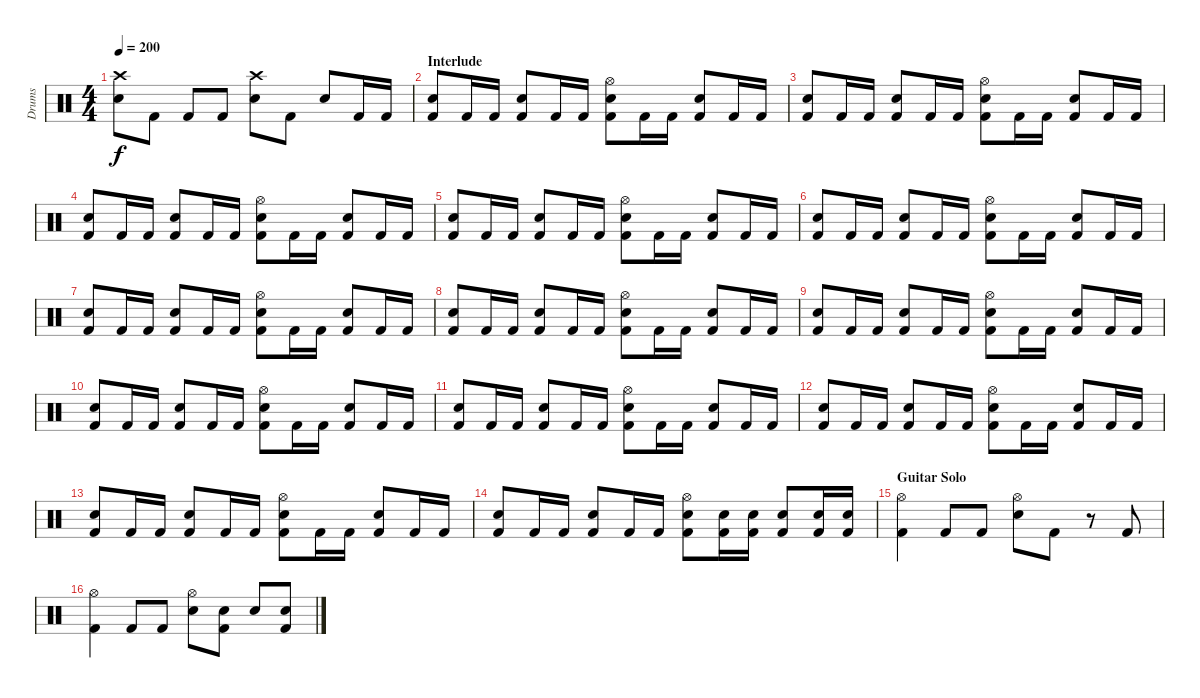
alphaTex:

\track ("Drums" "Drums") {instrument percussion}
\staff {score}
\articulation defaults
\ts (4 4)
\tempo 200
\clef neutral
\ks c
("Crash high (hit)" "Electric Snare (hit)").8{dy f} "Kick (hit) 2".8 "Kick (hit) 2".8 "Kick (hit) 2".8 ("Crash high (hit)" "Electric Snare (hit)").8 "Kick (hit) 2".8 "Electric Snare (hit)".8 "Kick (hit) 2".16 "Kick (hit) 2".16 |
\section ("" "Interlude")
("Electric Snare (hit)" "Kick (hit) 2").8 "Kick (hit) 2".16 "Kick (hit) 2".16 ("Electric Snare (hit)" "Kick (hit) 2").8 "Kick (hit) 2".16 "Kick (hit) 2".16 ("Hi-Hat (open)" "Electric Snare (hit)" "Kick (hit) 2").8 "Kick (hit) 2".16 "Kick (hit) 2".16 ("Electric Snare (hit)" "Kick (hit) 2").8 "Kick (hit) 2".16 "Kick (hit) 2".16 |
("Electric Snare (hit)" "Kick (hit) 2").8 "Kick (hit) 2".16 "Kick (hit) 2".16 ("Electric Snare (hit)" "Kick (hit) 2").8 "Kick (hit) 2".16 "Kick (hit) 2".16 ("Hi-Hat (open)" "Electric Snare (hit)" "Kick (hit) 2").8 "Kick (hit) 2".16 "Kick (hit) 2".16 ("Electric Snare (hit)" "Kick (hit) 2").8 "Kick (hit) 2".16 "Kick (hit) 2".16 |
("Electric Snare (hit)" "Kick (hit) 2").8 "Kick (hit) 2".16 "Kick (hit) 2".16 ("Electric Snare (hit)" "Kick (hit) 2").8 "Kick (hit) 2".16 "Kick (hit) 2".16 ("Hi-Hat (open)" "Electric Snare (hit)" "Kick (hit) 2").8 "Kick (hit) 2".16 "Kick (hit) 2".16 ("Electric Snare (hit)" "Kick (hit) 2").8 "Kick (hit) 2".16 "Kick (hit) 2".16 |
("Electric Snare (hit)" "Kick (hit) 2").8 "Kick (hit) 2".16 "Kick (hit) 2".16 ("Electric Snare (hit)" "Kick (hit) 2").8 "Kick (hit) 2".16 "Kick (hit) 2".16 ("Hi-Hat (open)" "Electric Snare (hit)" "Kick (hit) 2").8 "Kick (hit) 2".16 "Kick (hit) 2".16 ("Electric Snare (hit)" "Kick (hit) 2").8 "Kick (hit) 2".16 "Kick (hit) 2".16 |
("Electric Snare (hit)" "Kick (hit) 2").8 "Kick (hit) 2".16 "Kick (hit) 2".16 ("Electric Snare (hit)" "Kick (hit) 2").8 "Kick (hit) 2".16 "Kick (hit) 2".16 ("Hi-Hat (open)" "Electric Snare (hit)" "Kick (hit) 2").8 "Kick (hit) 2".16 "Kick (hit) 2".16 ("Electric Snare (hit)" "Kick (hit) 2").8 "Kick (hit) 2".16 "Kick (hit) 2".16 |
("Electric Snare (hit)" "Kick (hit) 2").8 "Kick (hit) 2".16 "Kick (hit) 2".16 ("Electric Snare (hit)" "Kick (hit) 2").8 "Kick (hit) 2".16 "Kick (hit) 2".16 ("Hi-Hat (open)" "Electric Snare (hit)" "Kick (hit) 2").8 "Kick (hit) 2".16 "Kick (hit) 2".16 ("Electric Snare (hit)" "Kick (hit) 2").8 "Kick (hit) 2".16 "Kick (hit) 2".16 |
("Electric Snare (hit)" "Kick (hit) 2").8 "Kick (hit) 2".16 "Kick (hit) 2".16 ("Electric Snare (hit)" "Kick (hit) 2").8 "Kick (hit) 2".16 "Kick (hit) 2".16 ("Hi-Hat (open)" "Electric Snare (hit)" "Kick (hit) 2").8 "Kick (hit) 2".16 "Kick (hit) 2".16 ("Electric Snare (hit)" "Kick (hit) 2").8 "Kick (hit) 2".16 "Kick (hit) 2".16 |
("Electric Snare (hit)" "Kick (hit) 2").8 "Kick (hit) 2".16 "Kick (hit) 2".16 ("Electric Snare (hit)" "Kick (hit) 2").8 "Kick (hit) 2".16 "Kick (hit) 2".16 ("Hi-Hat (open)" "Electric Snare (hit)" "Kick (hit) 2").8 "Kick (hit) 2".16 "Kick (hit) 2".16 ("Electric Snare (hit)" "Kick (hit) 2").8 "Kick (hit) 2".16 "Kick (hit) 2".16 |
("Electric Snare (hit)" "Kick (hit) 2").8 "Kick (hit) 2".16 "Kick (hit) 2".16 ("Electric Snare (hit)" "Kick (hit) 2").8 "Kick (hit) 2".16 "Kick (hit) 2".16 ("Hi-Hat (open)" "Electric Snare (hit)" "Kick (hit) 2").8 "Kick (hit) 2".16 "Kick (hit) 2".16 ("Electric Snare (hit)" "Kick (hit) 2").8 "Kick (hit) 2".16 "Kick (hit) 2".16 |
("Electric Snare (hit)" "Kick (hit) 2").8 "Kick (hit) 2".16 "Kick (hit) 2".16 ("Electric Snare (hit)" "Kick (hit) 2").8 "Kick (hit) 2".16 "Kick (hit) 2".16 ("Hi-Hat (open)" "Electric Snare (hit)" "Kick (hit) 2").8 "Kick (hit) 2".16 "Kick (hit) 2".16 ("Electric Snare (hit)" "Kick (hit) 2").8 "Kick (hit) 2".16 "Kick (hit) 2".16 |
("Electric Snare (hit)" "Kick (hit) 2").8 "Kick (hit) 2".16 "Kick (hit) 2".16 ("Electric Snare (hit)" "Kick (hit) 2").8 "Kick (hit) 2".16 "Kick (hit) 2".16 ("Hi-Hat (open)" "Electric Snare (hit)" "Kick (hit) 2").8 "Kick (hit) 2".16 "Kick (hit) 2".16 ("Electric Snare (hit)" "Kick (hit) 2").8 "Kick (hit) 2".16 "Kick (hit) 2".16 |
("Electric Snare (hit)" "Kick (hit) 2").8 "Kick (hit) 2".16 "Kick (hit) 2".16 ("Electric Snare (hit)" "Kick (hit) 2").8 "Kick (hit) 2".16 "Kick (hit) 2".16 ("Hi-Hat (open)" "Electric Snare (hit)" "Kick (hit) 2").8 "Kick (hit) 2".16 "Kick (hit) 2".16 ("Electric Snare (hit)" "Kick (hit) 2").8 "Kick (hit) 2".16 "Kick (hit) 2".16 |
("Electric Snare (hit)" "Kick (hit) 2").8 "Kick (hit) 2".16 "Kick (hit) 2".16 ("Electric Snare (hit)" "Kick (hit) 2").8 "Kick (hit) 2".16 "Kick (hit) 2".16 ("Hi-Hat (open)" "Electric Snare (hit)" "Kick (hit) 2").8 ("Electric Snare (hit)" "Kick (hit) 2").16 ("Electric Snare (hit)" "Kick (hit) 2").16 ("Electric Snare (hit)" "Kick (hit) 2").8 ("Electric Snare (hit)" "Kick (hit) 2").16 ("Electric Snare (hit)" "Kick (hit) 2").16 |
\section ("" "Guitar Solo")
("Hi-Hat (open)" "Kick (hit) 2").4 "Kick (hit) 2".8 "Kick (hit) 2".8 ("Hi-Hat (open)" "Electric Snare (hit)").8 "Kick (hit) 2".8 r.8 "Kick (hit) 2".8 |
("Hi-Hat (open)" "Kick (hit) 2").4 "Kick (hit) 2".8 "Kick (hit) 2".8 ("Hi-Hat (open)" "Electric Snare (hit)").8 ("Electric Snare (hit)" "Kick (hit) 2").8 "Electric Snare (hit)".8 ("Electric Snare (hit)" "Kick (hit) 2").8
